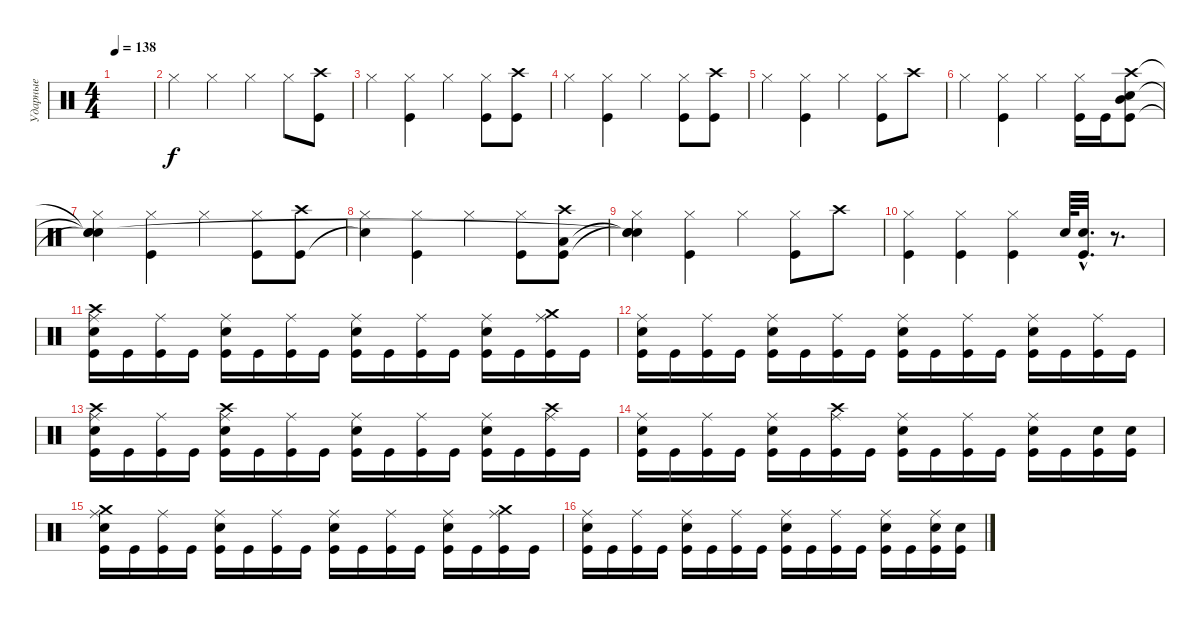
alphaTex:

\track ("Ударные" "Ударные") {instrument percussion}
\staff {score}
\articulation defaults
\ts (4 4)
\tempo 138
\clef neutral
\ks c
|
"Hi-Hat (closed)".4 "Hi-Hat (closed)".4 "Hi-Hat (closed)".4 "Hi-Hat (closed)".8 ("Crash high (hit)" "Kick (hit)").8 |
"Hi-Hat (closed)".4 ("Hi-Hat (closed)" "Kick (hit)").4 "Hi-Hat (closed)".4 ("Hi-Hat (closed)" "Kick (hit)").8 ("Crash high (hit)" "Kick (hit)").8 |
"Hi-Hat (closed)".4 ("Hi-Hat (closed)" "Kick (hit)").4 "Hi-Hat (closed)".4 ("Hi-Hat (closed)" "Kick (hit)").8 ("Crash high (hit)" "Kick (hit)").8 |
"Hi-Hat (closed)".4 ("Hi-Hat (closed)" "Kick (hit)").4 "Hi-Hat (closed)".4 ("Hi-Hat (closed)" "Kick (hit)").8 "Crash high (hit)".8 |
"Hi-Hat (closed)".4 ("Hi-Hat (closed)" "Kick (hit)").4 "Hi-Hat (closed)".4 ("Hi-Hat (closed)" "Kick (hit)").16 "Kick (hit)".16 ("Mid Tom (hit)" "Crash high (hit)" "Electric Snare (hit)" "Kick (hit)").8 |
("Hi-Hat (closed)" "Snare (hit)"{t} "Snare (hit)"{t} "Snare (hit)"{t}).4 ("Hi-Hat (closed)" "Kick (hit)").4 "Hi-Hat (closed)".4 ("Hi-Hat (closed)" "Kick (hit)").8 ("Crash high (hit)" "Kick (hit)").8 |
("Hi-Hat (closed)" "Snare (hit)"{t}).4 ("Hi-Hat (closed)" "Kick (hit)").4 "Hi-Hat (closed)".4 ("Hi-Hat (closed)" "Kick (hit)").8 ("Crash high (hit)" "Low Tom (hit)" "Kick (hit)").8 |
("Hi-Hat (closed)" "Snare (hit)"{t} "Snare (hit)"{t} "Snare (hit)"{t}).4 ("Hi-Hat (closed)" "Kick (hit)").4 "Hi-Hat (closed)".4 ("Hi-Hat (closed)" "Kick (hit)").8 "Crash high (hit)".8 |
("Hi-Hat (closed)" "Kick (hit)").4 ("Hi-Hat (closed)" "Kick (hit)").4 ("Hi-Hat (closed)" "Kick (hit)").4 "Electric Snare (hit)".64 ("Electric Snare (hit)"{hac} "Kick (hit)"{hac}).32{d} r.8{d} |
("Crash high (hit)" "Ride (middle)" "Electric Snare (hit)" "Kick (hit)").16 "Kick (hit)".16 ("Ride (middle)" "Kick (hit)").16 "Kick (hit)".16 ("Ride (middle)" "Electric Snare (hit)" "Kick (hit)").16 "Kick (hit)".16 ("Ride (middle)" "Kick (hit)").16 "Kick (hit)".16 ("Ride (middle)" "Electric Snare (hit)" "Kick (hit)").16 "Kick (hit)".16 ("Ride (middle)" "Kick (hit)").16 "Kick (hit)".16 ("Ride (middle)" "Electric Snare (hit)" "Kick (hit)").16 "Kick (hit)".16 ("Crash medium (hit)" "Ride (middle)" "Kick (hit)").16 "Kick (hit)".16 |
("Ride (middle)" "Electric Snare (hit)" "Kick (hit)").16 "Kick (hit)".16 ("Ride (middle)" "Kick (hit)").16 "Kick (hit)".16 ("Ride (middle)" "Electric Snare (hit)" "Kick (hit)").16 "Kick (hit)".16 ("Ride (middle)" "Kick (hit)").16 "Kick (hit)".16 ("Ride (middle)" "Electric Snare (hit)" "Kick (hit)").16 "Kick (hit)".16 ("Ride (middle)" "Kick (hit)").16 "Kick (hit)".16 ("Ride (middle)" "Electric Snare (hit)" "Kick (hit)").16 "Kick (hit)".16 ("Ride (middle)" "Kick (hit)").16 "Kick (hit)".16 |
("Crash high (hit)" "Ride (middle)" "Electric Snare (hit)" "Kick (hit)").16 "Kick (hit)".16 ("Ride (middle)" "Kick (hit)").16 "Kick (hit)".16 ("Crash high (hit)" "Ride (middle)" "Electric Snare (hit)" "Kick (hit)").16 "Kick (hit)".16 ("Ride (middle)" "Kick (hit)").16 "Kick (hit)".16 ("Ride (middle)" "Electric Snare (hit)" "Kick (hit)").16 "Kick (hit)".16 ("Ride (middle)" "Kick (hit)").16 "Kick (hit)".16 ("Ride (middle)" "Electric Snare (hit)" "Kick (hit)").16 "Kick (hit)".16 ("Crash high (hit)" "Ride (middle)" "Kick (hit)").16 "Kick (hit)".16 |
("Ride (middle)" "Electric Snare (hit)" "Kick (hit)").16 "Kick (hit)".16 ("Ride (middle)" "Kick (hit)").16 "Kick (hit)".16 ("Ride (middle)" "Electric Snare (hit)" "Kick (hit)").16 "Kick (hit)".16 ("Crash high (hit)" "Ride (middle)" "Kick (hit)").16 "Kick (hit)".16 ("Ride (middle)" "Electric Snare (hit)" "Kick (hit)").16 "Kick (hit)".16 ("Ride (middle)" "Kick (hit)").16 "Kick (hit)".16 ("Ride (middle)" "Electric Snare (hit)" "Kick (hit)").16 "Kick (hit)".16 ("Electric Snare (hit)" "Kick (hit)").16 ("Electric Snare (hit)" "Kick (hit)").16 |
("Crash medium (hit)" "Ride (middle)" "Electric Snare (hit)" "Kick (hit)").16 "Kick (hit)".16 ("Ride (middle)" "Kick (hit)").16 "Kick (hit)".16 ("Ride (middle)" "Electric Snare (hit)" "Kick (hit)").16 "Kick (hit)".16 ("Ride (middle)" "Kick (hit)").16 "Kick (hit)".16 ("Ride (middle)" "Electric Snare (hit)" "Kick (hit)").16 "Kick (hit)".16 ("Ride (middle)" "Kick (hit)").16 "Kick (hit)".16 ("Ride (middle)" "Electric Snare (hit)" "Kick (hit)").16 "Kick (hit)".16 ("Crash medium (hit)" "Ride (middle)" "Kick (hit)").16 "Kick (hit)".16 |
("Ride (middle)" "Electric Snare (hit)" "Kick (hit)").16 "Kick (hit)".16 ("Ride (middle)" "Kick (hit)").16 "Kick (hit)".16 ("Ride (middle)" "Electric Snare (hit)" "Kick (hit)").16 "Kick (hit)".16 ("Ride (middle)" "Kick (hit)").16 "Kick (hit)".16 ("Ride (middle)" "Electric Snare (hit)" "Kick (hit)").16 "Kick (hit)".16 ("Ride (middle)" "Kick (hit)").16 "Kick (hit)".16 ("Ride (middle)" "Electric Snare (hit)" "Kick (hit)").16 "Kick (hit)".16 ("Ride (middle)" "Electric Snare (hit)" "Kick (hit)").16 ("Electric Snare (hit)" "Kick (hit)").16
